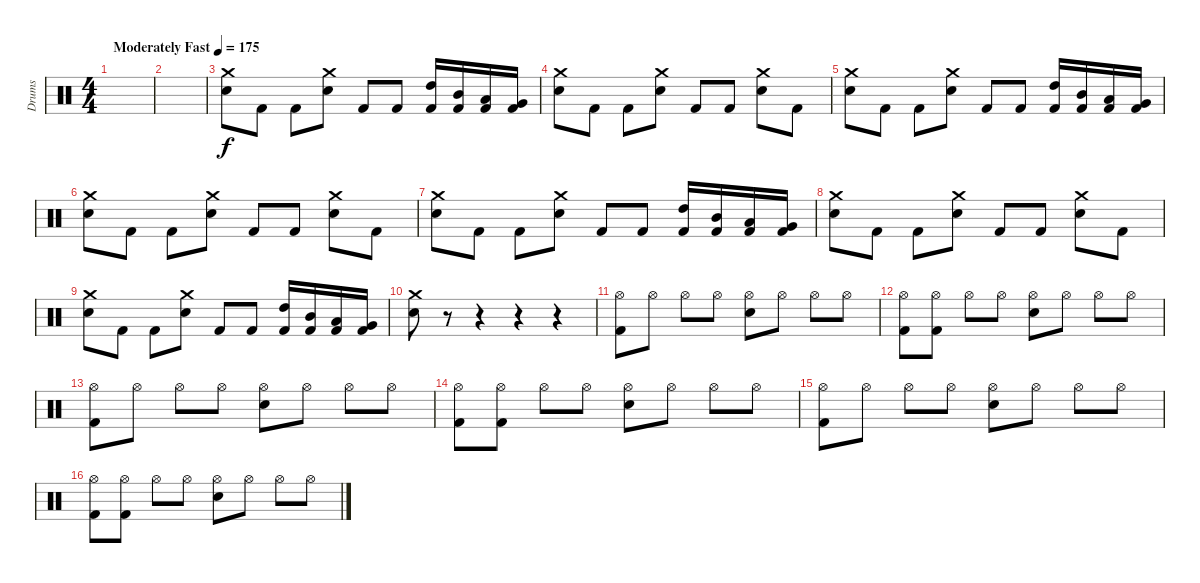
\track ("Drums" "Drums") {instrument percussion}
\staff {score}
\articulation defaults
\ts (4 4)
\tempo (175 "Moderately Fast")
\clef neutral
\ks c
|
|
("Electric Snare (hit)" "Crash medium (hit)").8 "Kick (hit) 2".8 "Kick (hit) 2".8 ("Electric Snare (hit)" "Crash medium (hit)").8 "Kick (hit) 2".8 "Kick (hit) 2".8 ("Kick (hit) 2" "High Tom (hit)").16 ("Kick (hit) 2" "Mid Tom (hit)").16 ("Kick (hit) 2" "Low Tom (hit)").16 ("Kick (hit) 2" "Very Low Tom (hit)").16 |
("Electric Snare (hit)" "Crash medium (hit)").8 "Kick (hit) 2".8 "Kick (hit) 2".8 ("Electric Snare (hit)" "Crash medium (hit)").8 "Kick (hit) 2".8 "Kick (hit) 2".8 ("Electric Snare (hit)" "Crash medium (hit)").8 "Kick (hit) 2".8 |
("Electric Snare (hit)" "Crash medium (hit)").8 "Kick (hit) 2".8 "Kick (hit) 2".8 ("Electric Snare (hit)" "Crash medium (hit)").8 "Kick (hit) 2".8 "Kick (hit) 2".8 ("Kick (hit) 2" "High Tom (hit)").16 ("Kick (hit) 2" "Mid Tom (hit)").16 ("Kick (hit) 2" "Low Tom (hit)").16 ("Kick (hit) 2" "Very Low Tom (hit)").16 |
("Electric Snare (hit)" "Crash medium (hit)").8 "Kick (hit) 2".8 "Kick (hit) 2".8 ("Electric Snare (hit)" "Crash medium (hit)").8 "Kick (hit) 2".8 "Kick (hit) 2".8 ("Electric Snare (hit)" "Crash medium (hit)").8 "Kick (hit) 2".8 |
("Electric Snare (hit)" "Crash medium (hit)").8 "Kick (hit) 2".8 "Kick (hit) 2".8 ("Electric Snare (hit)" "Crash medium (hit)").8 "Kick (hit) 2".8 "Kick (hit) 2".8 ("Kick (hit) 2" "High Tom (hit)").16 ("Kick (hit) 2" "Mid Tom (hit)").16 ("Kick (hit) 2" "Low Tom (hit)").16 ("Kick (hit) 2" "Very Low Tom (hit)").16 |
("Electric Snare (hit)" "Crash medium (hit)").8 "Kick (hit) 2".8 "Kick (hit) 2".8 ("Electric Snare (hit)" "Crash medium (hit)").8 "Kick (hit) 2".8 "Kick (hit) 2".8 ("Electric Snare (hit)" "Crash medium (hit)").8 "Kick (hit) 2".8 |
("Electric Snare (hit)" "Crash medium (hit)").8 "Kick (hit) 2".8 "Kick (hit) 2".8 ("Electric Snare (hit)" "Crash medium (hit)").8 "Kick (hit) 2".8 "Kick (hit) 2".8 ("Kick (hit) 2" "High Tom (hit)").16 ("Kick (hit) 2" "Mid Tom (hit)").16 ("Kick (hit) 2" "Low Tom (hit)").16 ("Kick (hit) 2" "Very Low Tom (hit)").16 |
("Electric Snare (hit)" "Crash medium (hit)").8 r.8 r.4 r.4 r.4 |
("Kick (hit) 2" "Hi-Hat (open)").8 "Hi-Hat (open)".8 "Hi-Hat (open)".8 "Hi-Hat (open)".8 ("Electric Snare (hit)" "Hi-Hat (open)").8 "Hi-Hat (open)".8 "Hi-Hat (open)".8 "Hi-Hat (open)".8 |
("Kick (hit) 2" "Hi-Hat (open)").8 ("Kick (hit) 2" "Hi-Hat (open)").8 "Hi-Hat (open)".8 "Hi-Hat (open)".8 ("Electric Snare (hit)" "Hi-Hat (open)").8 "Hi-Hat (open)".8 "Hi-Hat (open)".8 "Hi-Hat (open)".8 |
("Kick (hit) 2" "Hi-Hat (open)").8 "Hi-Hat (open)".8 "Hi-Hat (open)".8 "Hi-Hat (open)".8 ("Electric Snare (hit)" "Hi-Hat (open)").8 "Hi-Hat (open)".8 "Hi-Hat (open)".8 "Hi-Hat (open)".8 |
("Kick (hit) 2" "Hi-Hat (open)").8 ("Kick (hit) 2" "Hi-Hat (open)").8 "Hi-Hat (open)".8 "Hi-Hat (open)".8 ("Electric Snare (hit)" "Hi-Hat (open)").8 "Hi-Hat (open)".8 "Hi-Hat (open)".8 "Hi-Hat (open)".8 |
("Kick (hit) 2" "Hi-Hat (open)").8 "Hi-Hat (open)".8 "Hi-Hat (open)".8 "Hi-Hat (open)".8 ("Electric Snare (hit)" "Hi-Hat (open)").8 "Hi-Hat (open)".8 "Hi-Hat (open)".8 "Hi-Hat (open)".8 |
("Kick (hit) 2" "Hi-Hat (open)").8 ("Kick (hit) 2" "Hi-Hat (open)").8 "Hi-Hat (open)".8 "Hi-Hat (open)".8 ("Electric Snare (hit)" "Hi-Hat (open)").8 "Hi-Hat (open)".8 "Hi-Hat (open)".8 "Hi-Hat (open)".8
